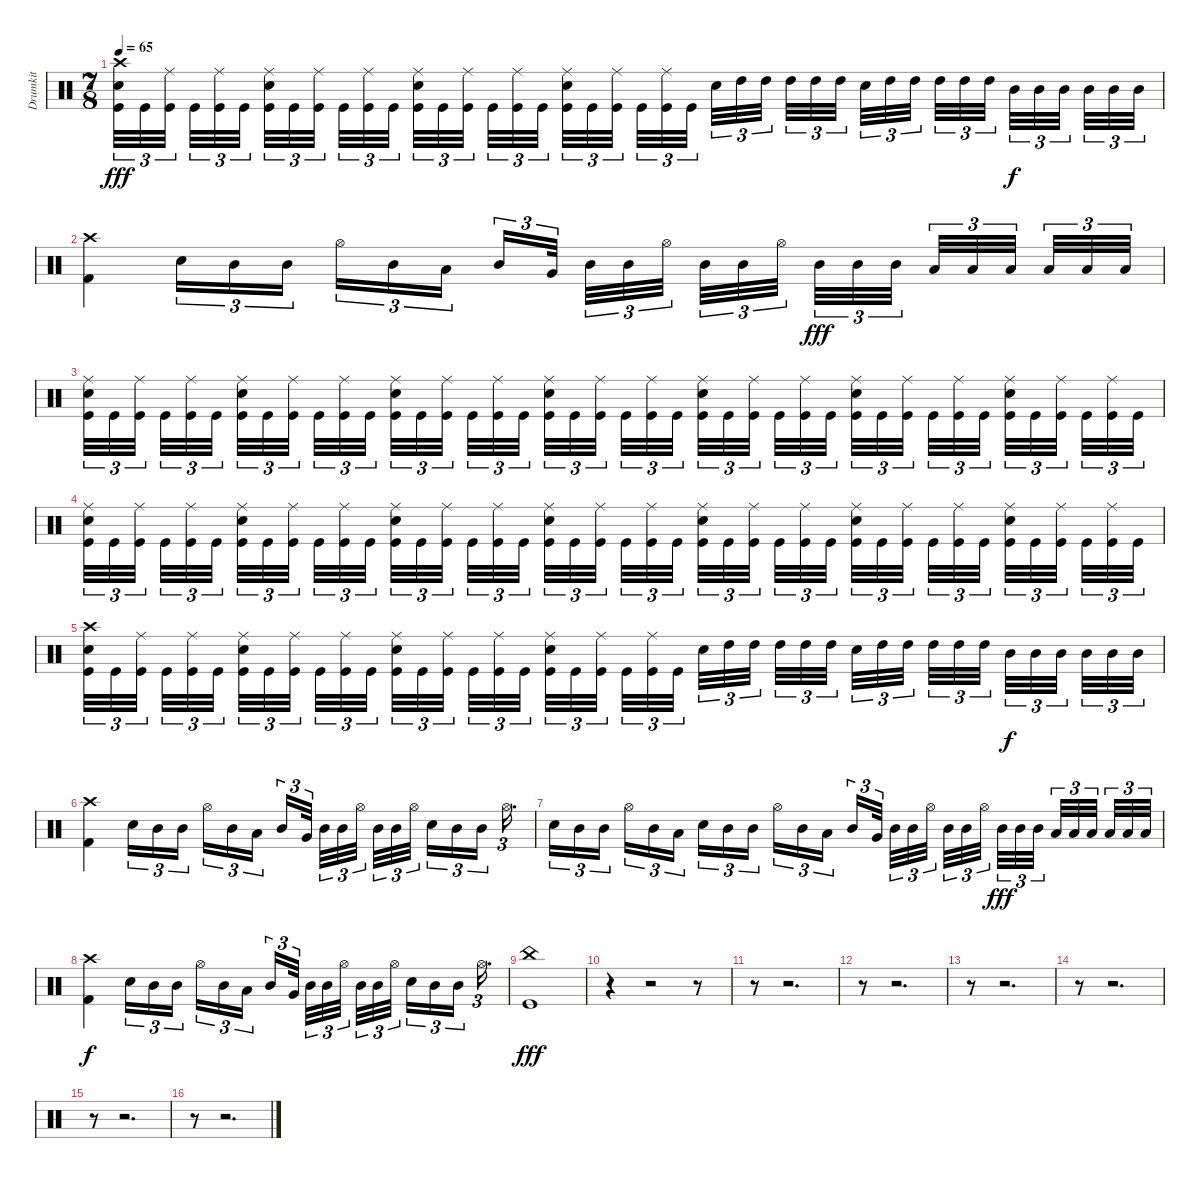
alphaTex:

\track ("Drumkit" "Drumkit") {instrument percussion}
\staff {score}
\articulation defaults
\ts (7 8)
\tempo 65
\clef neutral
\ks c
("Kick (hit)" "Snare (hit) 2" "Crash high (hit)").32{tu (3 2) dy fff} "Kick (hit)".32{tu (3 2)} ("Kick (hit)" "Ride (middle)").32{tu (3 2) beam splitsecondary} "Kick (hit)".32{tu (3 2)} ("Kick (hit)" "Ride (middle)").32{tu (3 2)} "Kick (hit)".32{tu (3 2)} ("Kick (hit)" "Snare (hit) 2" "Ride (middle)").32{tu (3 2)} "Kick (hit)".32{tu (3 2)} ("Kick (hit)" "Ride (middle)").32{tu (3 2) beam splitsecondary} "Kick (hit)".32{tu (3 2)} ("Kick (hit)" "Ride (middle)").32{tu (3 2)} "Kick (hit)".32{tu (3 2)} ("Kick (hit)" "Snare (hit) 2" "Ride (middle)").32{tu (3 2)} "Kick (hit)".32{tu (3 2)} ("Kick (hit)" "Ride (middle)").32{tu (3 2) beam splitsecondary} "Kick (hit)".32{tu (3 2)} ("Kick (hit)" "Ride (middle)").32{tu (3 2)} "Kick (hit)".32{tu (3 2)} ("Kick (hit)" "Snare (hit) 2" "Ride (middle)").32{tu (3 2)} "Kick (hit)".32{tu (3 2)} ("Kick (hit)" "Ride (middle)").32{tu (3 2) beam splitsecondary} "Kick (hit)".32{tu (3 2)} ("Kick (hit)" "Ride (middle)").32{tu (3 2)} "Kick (hit)".32{tu (3 2)} "Snare (hit) 2".32{tu (3 2)} "High Tom (hit)".32{tu (3 2)} "High Tom (hit)".32{tu (3 2) beam splitsecondary} "High Tom (hit)".32{tu (3 2)} "High Tom (hit)".32{tu (3 2)} "High Tom (hit)".32{tu (3 2)} "Snare (hit) 2".32{tu (3 2)} "High Tom (hit)".32{tu (3 2)} "High Tom (hit)".32{tu (3 2) beam splitsecondary} "High Tom (hit)".32{tu (3 2)} "High Tom (hit)".32{tu (3 2)} "High Tom (hit)".32{tu (3 2)} "Mid Tom (hit)".32{tu (3 2) dy f} "Mid Tom (hit)".32{tu (3 2)} "Mid Tom (hit)".32{tu (3 2) beam splitsecondary} "Mid Tom (hit)".32{tu (3 2)} "Mid Tom (hit)".32{tu (3 2)} "Mid Tom (hit)".32{tu (3 2)} |
("Crash high (hit)" "Kick (hit) 2").4 "Snare (hit) 2".16{tu (3 2)} "Mid Tom (hit)".16{tu (3 2)} "Mid Tom (hit)".16{tu (3 2)} "Hi-Hat (open)".16{tu (3 2)} "Mid Tom (hit)".16{tu (3 2)} "Low Tom (hit)".16{tu (3 2)} "Mid Tom (hit)".16{tu (3 2)} "Very Low Tom (hit)".32{tu (3 2) beam splitsecondary} "Mid Tom (hit)".32{tu (3 2)} "Mid Tom (hit)".32{tu (3 2)} "Hi-Hat (open)".32{tu (3 2)} "Mid Tom (hit)".32{tu (3 2)} "Mid Tom (hit)".32{tu (3 2)} "Hi-Hat (open)".32{tu (3 2) beam splitsecondary} "Mid Tom (hit)".32{tu (3 2) dy fff} "Mid Tom (hit)".32{tu (3 2)} "Mid Tom (hit)".32{tu (3 2)} "Low Tom (hit)".32{tu (3 2)} "Low Tom (hit)".32{tu (3 2)} "Low Tom (hit)".32{tu (3 2) beam splitsecondary} "Low Tom (hit)".32{tu (3 2)} "Low Tom (hit)".32{tu (3 2)} "Low Tom (hit)".32{tu (3 2)} |
("Kick (hit)" "Snare (hit) 2" "Ride (middle)").32{tu (3 2)} "Kick (hit)".32{tu (3 2)} ("Kick (hit)" "Ride (middle)").32{tu (3 2) beam splitsecondary} "Kick (hit)".32{tu (3 2)} ("Kick (hit)" "Ride (middle)").32{tu (3 2)} "Kick (hit)".32{tu (3 2)} ("Kick (hit)" "Snare (hit) 2" "Ride (middle)").32{tu (3 2)} "Kick (hit)".32{tu (3 2)} ("Kick (hit)" "Ride (middle)").32{tu (3 2) beam splitsecondary} "Kick (hit)".32{tu (3 2)} ("Kick (hit)" "Ride (middle)").32{tu (3 2)} "Kick (hit)".32{tu (3 2)} ("Kick (hit)" "Snare (hit) 2" "Ride (middle)").32{tu (3 2)} "Kick (hit)".32{tu (3 2)} ("Kick (hit)" "Ride (middle)").32{tu (3 2) beam splitsecondary} "Kick (hit)".32{tu (3 2)} ("Kick (hit)" "Ride (middle)").32{tu (3 2)} "Kick (hit)".32{tu (3 2)} ("Kick (hit)" "Snare (hit) 2" "Ride (middle)").32{tu (3 2)} "Kick (hit)".32{tu (3 2)} ("Kick (hit)" "Ride (middle)").32{tu (3 2) beam splitsecondary} "Kick (hit)".32{tu (3 2)} ("Kick (hit)" "Ride (middle)").32{tu (3 2)} "Kick (hit)".32{tu (3 2)} ("Kick (hit)" "Snare (hit) 2" "Ride (middle)").32{tu (3 2)} "Kick (hit)".32{tu (3 2)} ("Kick (hit)" "Ride (middle)").32{tu (3 2) beam splitsecondary} "Kick (hit)".32{tu (3 2)} ("Kick (hit)" "Ride (middle)").32{tu (3 2)} "Kick (hit)".32{tu (3 2)} ("Kick (hit)" "Snare (hit) 2" "Ride (middle)").32{tu (3 2)} "Kick (hit)".32{tu (3 2)} ("Kick (hit)" "Ride (middle)").32{tu (3 2) beam splitsecondary} "Kick (hit)".32{tu (3 2)} ("Kick (hit)" "Ride (middle)").32{tu (3 2)} "Kick (hit)".32{tu (3 2)} ("Kick (hit)" "Snare (hit) 2" "Ride (middle)").32{tu (3 2)} "Kick (hit)".32{tu (3 2)} ("Kick (hit)" "Ride (middle)").32{tu (3 2) beam splitsecondary} "Kick (hit)".32{tu (3 2)} ("Kick (hit)" "Ride (middle)").32{tu (3 2)} "Kick (hit)".32{tu (3 2)} |
("Kick (hit)" "Snare (hit) 2" "Ride (middle)").32{tu (3 2)} "Kick (hit)".32{tu (3 2)} ("Kick (hit)" "Ride (middle)").32{tu (3 2) beam splitsecondary} "Kick (hit)".32{tu (3 2)} ("Kick (hit)" "Ride (middle)").32{tu (3 2)} "Kick (hit)".32{tu (3 2)} ("Kick (hit)" "Snare (hit) 2" "Ride (middle)").32{tu (3 2)} "Kick (hit)".32{tu (3 2)} ("Kick (hit)" "Ride (middle)").32{tu (3 2) beam splitsecondary} "Kick (hit)".32{tu (3 2)} ("Kick (hit)" "Ride (middle)").32{tu (3 2)} "Kick (hit)".32{tu (3 2)} ("Kick (hit)" "Snare (hit) 2" "Ride (middle)").32{tu (3 2)} "Kick (hit)".32{tu (3 2)} ("Kick (hit)" "Ride (middle)").32{tu (3 2) beam splitsecondary} "Kick (hit)".32{tu (3 2)} ("Kick (hit)" "Ride (middle)").32{tu (3 2)} "Kick (hit)".32{tu (3 2)} ("Kick (hit)" "Snare (hit) 2" "Ride (middle)").32{tu (3 2)} "Kick (hit)".32{tu (3 2)} ("Kick (hit)" "Ride (middle)").32{tu (3 2) beam splitsecondary} "Kick (hit)".32{tu (3 2)} ("Kick (hit)" "Ride (middle)").32{tu (3 2)} "Kick (hit)".32{tu (3 2)} ("Kick (hit)" "Snare (hit) 2" "Ride (middle)").32{tu (3 2)} "Kick (hit)".32{tu (3 2)} ("Kick (hit)" "Ride (middle)").32{tu (3 2) beam splitsecondary} "Kick (hit)".32{tu (3 2)} ("Kick (hit)" "Ride (middle)").32{tu (3 2)} "Kick (hit)".32{tu (3 2)} ("Kick (hit)" "Snare (hit) 2" "Ride (middle)").32{tu (3 2)} "Kick (hit)".32{tu (3 2)} ("Kick (hit)" "Ride (middle)").32{tu (3 2) beam splitsecondary} "Kick (hit)".32{tu (3 2)} ("Kick (hit)" "Ride (middle)").32{tu (3 2)} "Kick (hit)".32{tu (3 2)} ("Kick (hit)" "Snare (hit) 2" "Ride (middle)").32{tu (3 2)} "Kick (hit)".32{tu (3 2)} ("Kick (hit)" "Ride (middle)").32{tu (3 2) beam splitsecondary} "Kick (hit)".32{tu (3 2)} ("Kick (hit)" "Ride (middle)").32{tu (3 2)} "Kick (hit)".32{tu (3 2)} |
("Kick (hit)" "Snare (hit) 2" "Crash high (hit)").32{tu (3 2)} "Kick (hit)".32{tu (3 2)} ("Kick (hit)" "Ride (middle)").32{tu (3 2) beam splitsecondary} "Kick (hit)".32{tu (3 2)} ("Kick (hit)" "Ride (middle)").32{tu (3 2)} "Kick (hit)".32{tu (3 2)} ("Kick (hit)" "Snare (hit) 2" "Ride (middle)").32{tu (3 2)} "Kick (hit)".32{tu (3 2)} ("Kick (hit)" "Ride (middle)").32{tu (3 2) beam splitsecondary} "Kick (hit)".32{tu (3 2)} ("Kick (hit)" "Ride (middle)").32{tu (3 2)} "Kick (hit)".32{tu (3 2)} ("Kick (hit)" "Snare (hit) 2" "Ride (middle)").32{tu (3 2)} "Kick (hit)".32{tu (3 2)} ("Kick (hit)" "Ride (middle)").32{tu (3 2) beam splitsecondary} "Kick (hit)".32{tu (3 2)} ("Kick (hit)" "Ride (middle)").32{tu (3 2)} "Kick (hit)".32{tu (3 2)} ("Kick (hit)" "Snare (hit) 2" "Ride (middle)").32{tu (3 2)} "Kick (hit)".32{tu (3 2)} ("Kick (hit)" "Ride (middle)").32{tu (3 2) beam splitsecondary} "Kick (hit)".32{tu (3 2)} ("Kick (hit)" "Ride (middle)").32{tu (3 2)} "Kick (hit)".32{tu (3 2)} "Snare (hit) 2".32{tu (3 2)} "High Tom (hit)".32{tu (3 2)} "High Tom (hit)".32{tu (3 2) beam splitsecondary} "High Tom (hit)".32{tu (3 2)} "High Tom (hit)".32{tu (3 2)} "High Tom (hit)".32{tu (3 2)} "Snare (hit) 2".32{tu (3 2)} "High Tom (hit)".32{tu (3 2)} "High Tom (hit)".32{tu (3 2) beam splitsecondary} "High Tom (hit)".32{tu (3 2)} "High Tom (hit)".32{tu (3 2)} "High Tom (hit)".32{tu (3 2)} "Mid Tom (hit)".32{tu (3 2) dy f} "Mid Tom (hit)".32{tu (3 2)} "Mid Tom (hit)".32{tu (3 2) beam splitsecondary} "Mid Tom (hit)".32{tu (3 2)} "Mid Tom (hit)".32{tu (3 2)} "Mid Tom (hit)".32{tu (3 2)} |
("Crash high (hit)" "Kick (hit) 2").4 "Snare (hit) 2".16{tu (3 2)} "Mid Tom (hit)".16{tu (3 2)} "Mid Tom (hit)".16{tu (3 2)} "Hi-Hat (open)".16{tu (3 2)} "Mid Tom (hit)".16{tu (3 2)} "Low Tom (hit)".16{tu (3 2)} "Mid Tom (hit)".16{tu (3 2)} "Very Low Tom (hit)".32{tu (3 2) beam splitsecondary} "Mid Tom (hit)".32{tu (3 2)} "Mid Tom (hit)".32{tu (3 2)} "Hi-Hat (open)".32{tu (3 2)} "Mid Tom (hit)".32{tu (3 2)} "Mid Tom (hit)".32{tu (3 2)} "Hi-Hat (open)".32{tu (3 2) beam splitsecondary} "Snare (hit) 2".16{tu (3 2)} "Mid Tom (hit)".16{tu (3 2)} "Mid Tom (hit)".16{tu (3 2)} "Hi-Hat (open)".16{d tu (3 2)} |
"Snare (hit) 2".16{tu (3 2)} "Mid Tom (hit)".16{tu (3 2)} "Mid Tom (hit)".16{tu (3 2)} "Hi-Hat (open)".16{tu (3 2)} "Mid Tom (hit)".16{tu (3 2)} "Low Tom (hit)".16{tu (3 2)} "Snare (hit) 2".16{tu (3 2)} "Mid Tom (hit)".16{tu (3 2)} "Mid Tom (hit)".16{tu (3 2)} "Hi-Hat (open)".16{tu (3 2)} "Mid Tom (hit)".16{tu (3 2)} "Low Tom (hit)".16{tu (3 2)} "Mid Tom (hit)".16{tu (3 2)} "Very Low Tom (hit)".32{tu (3 2) beam splitsecondary} "Mid Tom (hit)".32{tu (3 2)} "Mid Tom (hit)".32{tu (3 2)} "Hi-Hat (open)".32{tu (3 2)} "Mid Tom (hit)".32{tu (3 2)} "Mid Tom (hit)".32{tu (3 2)} "Hi-Hat (open)".32{tu (3 2) beam splitsecondary} "Mid Tom (hit)".32{tu (3 2) dy fff} "Mid Tom (hit)".32{tu (3 2)} "Mid Tom (hit)".32{tu (3 2)} "Low Tom (hit)".32{tu (3 2)} "Low Tom (hit)".32{tu (3 2)} "Low Tom (hit)".32{tu (3 2) beam splitsecondary} "Low Tom (hit)".32{tu (3 2)} "Low Tom (hit)".32{tu (3 2)} "Low Tom (hit)".32{tu (3 2)} |
("Crash high (hit)" "Kick (hit) 2").4{dy f} "Snare (hit) 2".16{tu (3 2)} "Mid Tom (hit)".16{tu (3 2)} "Mid Tom (hit)".16{tu (3 2)} "Hi-Hat (open)".16{tu (3 2)} "Mid Tom (hit)".16{tu (3 2)} "Low Tom (hit)".16{tu (3 2)} "Mid Tom (hit)".16{tu (3 2)} "Very Low Tom (hit)".32{tu (3 2) beam splitsecondary} "Mid Tom (hit)".32{tu (3 2)} "Mid Tom (hit)".32{tu (3 2)} "Hi-Hat (open)".32{tu (3 2)} "Mid Tom (hit)".32{tu (3 2)} "Mid Tom (hit)".32{tu (3 2)} "Hi-Hat (open)".32{tu (3 2) beam splitsecondary} "Snare (hit) 2".16{tu (3 2)} "Mid Tom (hit)".16{tu (3 2)} "Mid Tom (hit)".16{tu (3 2)} "Hi-Hat (open)".16{d tu (3 2)} |
("Kick (hit)" "China (hit)").1{dy fff} |
r.4 r.2 r.8 |
r.8 r.2{d} |
r.8 r.2{d} |
r.8 r.2{d} |
r.8 r.2{d} |
r.8 r.2{d} |
r.8 r.2{d}
